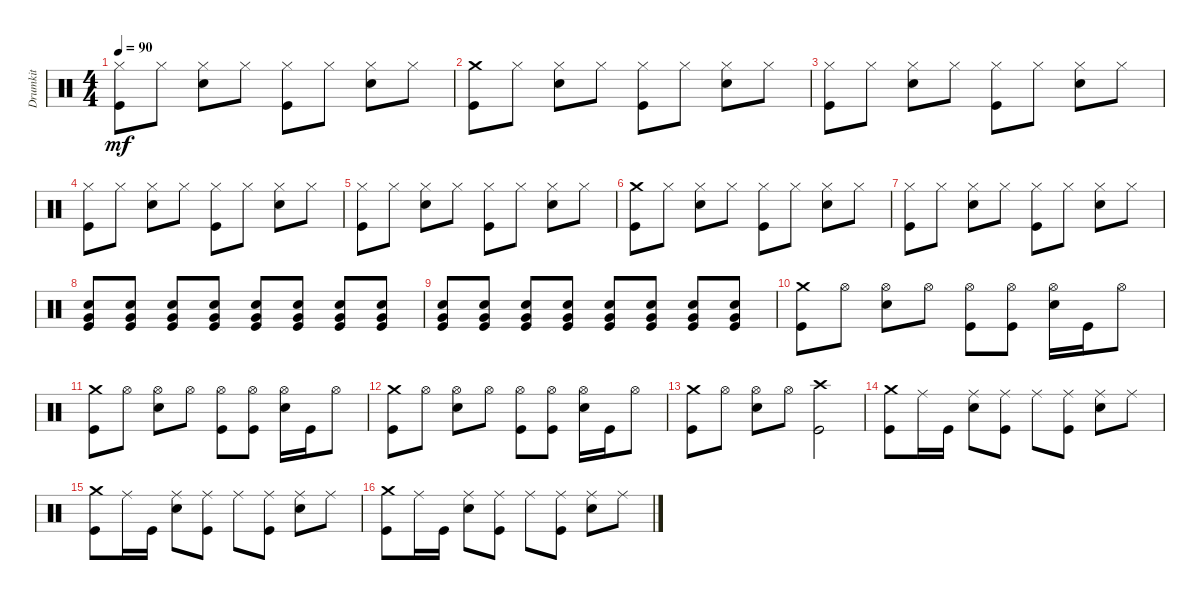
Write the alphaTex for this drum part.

\track ("Drumkit" "Drumkit") {instrument percussion}
\staff {score}
\articulation defaults
\ts (4 4)
\tempo 90
\clef neutral
\ks c
("Hi-Hat (closed)" "Kick (hit)").8{dy mf} "Hi-Hat (closed)".8 ("Hi-Hat (closed)" "Snare (hit) 2").8 "Hi-Hat (closed)".8 ("Hi-Hat (closed)" "Kick (hit)").8 "Hi-Hat (closed)".8 ("Hi-Hat (closed)" "Snare (hit) 2").8 "Hi-Hat (closed)".8 |
("Kick (hit)" "Crash medium (hit)").8 "Hi-Hat (closed)".8 ("Hi-Hat (closed)" "Snare (hit) 2").8 "Hi-Hat (closed)".8 ("Hi-Hat (closed)" "Kick (hit)").8 "Hi-Hat (closed)".8 ("Hi-Hat (closed)" "Snare (hit) 2").8 "Hi-Hat (closed)".8 |
("Hi-Hat (closed)" "Kick (hit)").8 "Hi-Hat (closed)".8 ("Hi-Hat (closed)" "Snare (hit) 2").8 "Hi-Hat (closed)".8 ("Hi-Hat (closed)" "Kick (hit)").8 "Hi-Hat (closed)".8 ("Hi-Hat (closed)" "Snare (hit) 2").8 "Hi-Hat (closed)".8 |
("Hi-Hat (closed)" "Kick (hit)").8 "Hi-Hat (closed)".8 ("Hi-Hat (closed)" "Snare (hit) 2").8 "Hi-Hat (closed)".8 ("Hi-Hat (closed)" "Kick (hit)").8 "Hi-Hat (closed)".8 ("Hi-Hat (closed)" "Snare (hit) 2").8 "Hi-Hat (closed)".8 |
("Hi-Hat (closed)" "Kick (hit)").8 "Hi-Hat (closed)".8 ("Hi-Hat (closed)" "Snare (hit) 2").8 "Hi-Hat (closed)".8 ("Hi-Hat (closed)" "Kick (hit)").8 "Hi-Hat (closed)".8 ("Hi-Hat (closed)" "Snare (hit) 2").8 "Hi-Hat (closed)".8 |
("Kick (hit)" "Crash medium (hit)").8 "Hi-Hat (closed)".8 ("Hi-Hat (closed)" "Snare (hit) 2").8 "Hi-Hat (closed)".8 ("Hi-Hat (closed)" "Kick (hit)").8 "Hi-Hat (closed)".8 ("Hi-Hat (closed)" "Snare (hit) 2").8 "Hi-Hat (closed)".8 |
("Hi-Hat (closed)" "Kick (hit)").8 "Hi-Hat (closed)".8 ("Hi-Hat (closed)" "Snare (hit) 2").8 "Hi-Hat (closed)".8 ("Hi-Hat (closed)" "Kick (hit)").8 "Hi-Hat (closed)".8 ("Hi-Hat (closed)" "Snare (hit) 2").8 "Hi-Hat (closed)".8 |
("Kick (hit)" "Very Low Tom (hit)" "Snare (hit) 2").8 ("Kick (hit)" "Very Low Tom (hit)" "Snare (hit) 2").8 ("Kick (hit)" "Very Low Tom (hit)" "Snare (hit) 2").8 ("Kick (hit)" "Very Low Tom (hit)" "Snare (hit) 2").8 ("Kick (hit)" "Very Low Tom (hit)" "Snare (hit) 2").8 ("Kick (hit)" "Very Low Tom (hit)" "Snare (hit) 2").8 ("Kick (hit)" "Very Low Tom (hit)" "Snare (hit) 2").8 ("Kick (hit)" "Very Low Tom (hit)" "Snare (hit) 2").8 |
("Kick (hit)" "Very Low Tom (hit)" "Snare (hit) 2").8 ("Kick (hit)" "Very Low Tom (hit)" "Snare (hit) 2").8 ("Kick (hit)" "Very Low Tom (hit)" "Snare (hit) 2").8 ("Kick (hit)" "Very Low Tom (hit)" "Snare (hit) 2").8 ("Kick (hit)" "Very Low Tom (hit)" "Snare (hit) 2").8 ("Kick (hit)" "Very Low Tom (hit)" "Snare (hit) 2").8 ("Kick (hit)" "Very Low Tom (hit)" "Snare (hit) 2").8 ("Kick (hit)" "Very Low Tom (hit)" "Snare (hit) 2").8 |
("Crash medium (hit)" "Kick (hit)").8 "Hi-Hat (open)".8 ("Snare (hit) 2" "Hi-Hat (open)").8 "Hi-Hat (open)".8 ("Kick (hit)" "Hi-Hat (open)").8 ("Kick (hit)" "Hi-Hat (open)").8 ("Snare (hit) 2" "Hi-Hat (open)").16 "Kick (hit)".16 "Hi-Hat (open)".8 |
("Crash medium (hit)" "Kick (hit)").8 "Hi-Hat (open)".8 ("Snare (hit) 2" "Hi-Hat (open)").8 "Hi-Hat (open)".8 ("Kick (hit)" "Hi-Hat (open)").8 ("Kick (hit)" "Hi-Hat (open)").8 ("Snare (hit) 2" "Hi-Hat (open)").16 "Kick (hit)".16 "Hi-Hat (open)".8 |
("Crash medium (hit)" "Kick (hit)").8 "Hi-Hat (open)".8 ("Snare (hit) 2" "Hi-Hat (open)").8 "Hi-Hat (open)".8 ("Kick (hit)" "Hi-Hat (open)").8 ("Kick (hit)" "Hi-Hat (open)").8 ("Snare (hit) 2" "Hi-Hat (open)").16 "Kick (hit)".16 "Hi-Hat (open)".8 |
("Crash medium (hit)" "Kick (hit)").8 "Hi-Hat (open)".8 ("Snare (hit) 2" "Hi-Hat (open)").8 "Hi-Hat (open)".8 ("Kick (hit)" "Crash high (hit)").2 |
("Crash medium (hit)" "Kick (hit)").8 "Ride (middle)".16 "Kick (hit)".16 ("Snare (hit) 2" "Ride (middle)").8 ("Kick (hit)" "Ride (middle)").8 "Ride (middle)".8 ("Kick (hit)" "Ride (middle)").8 ("Snare (hit) 2" "Ride (middle)").8 "Ride (middle)".8 |
("Crash medium (hit)" "Kick (hit)").8 "Ride (middle)".16 "Kick (hit)".16 ("Snare (hit) 2" "Ride (middle)").8 ("Kick (hit)" "Ride (middle)").8 "Ride (middle)".8 ("Kick (hit)" "Ride (middle)").8 ("Snare (hit) 2" "Ride (middle)").8 "Ride (middle)".8 |
("Crash medium (hit)" "Kick (hit)").8 "Ride (middle)".16 "Kick (hit)".16 ("Snare (hit) 2" "Ride (middle)").8 ("Kick (hit)" "Ride (middle)").8 "Ride (middle)".8 ("Kick (hit)" "Ride (middle)").8 ("Snare (hit) 2" "Ride (middle)").8 "Ride (middle)".8
